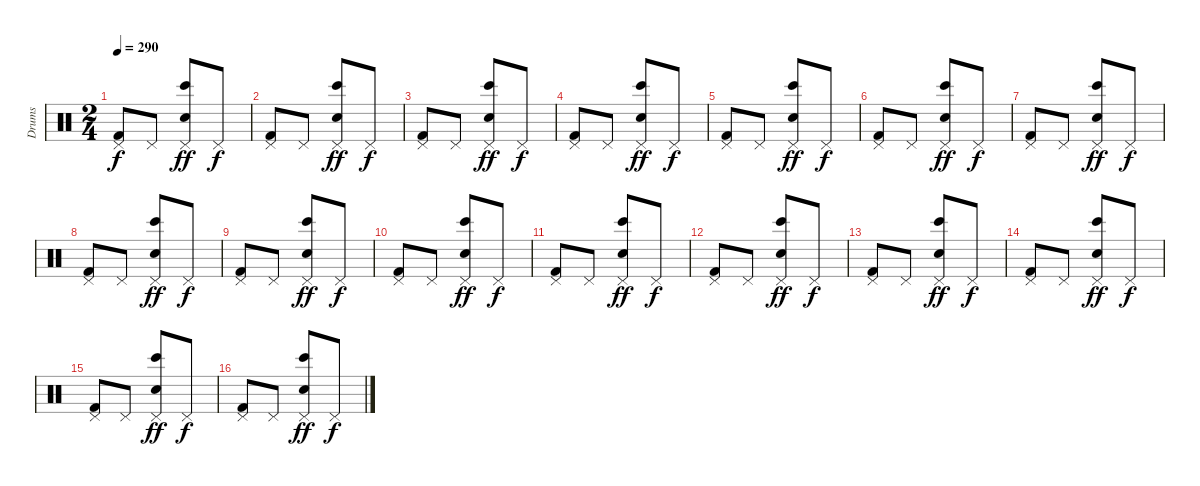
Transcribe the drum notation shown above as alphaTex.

\track ("Drums" "Drums") {instrument percussion}
\staff {score}
\articulation defaults
\ts (2 4)
\tempo 290
\clef neutral
\ks c
("Pedal Hi-Hat (hit)" "Kick (hit) 2").8{dy f} "Pedal Hi-Hat (hit)".8 ("Pedal Hi-Hat (hit)" "Bongo High (hit)" "Electric Snare (hit)").8{dy ff} "Pedal Hi-Hat (hit)".8{dy f} |
("Pedal Hi-Hat (hit)" "Kick (hit) 2").8 "Pedal Hi-Hat (hit)".8 ("Pedal Hi-Hat (hit)" "Bongo High (hit)" "Electric Snare (hit)").8{dy ff} "Pedal Hi-Hat (hit)".8{dy f} |
("Pedal Hi-Hat (hit)" "Kick (hit) 2").8 "Pedal Hi-Hat (hit)".8 ("Pedal Hi-Hat (hit)" "Bongo High (hit)" "Electric Snare (hit)").8{dy ff} "Pedal Hi-Hat (hit)".8{dy f} |
("Pedal Hi-Hat (hit)" "Kick (hit) 2").8 "Pedal Hi-Hat (hit)".8 ("Pedal Hi-Hat (hit)" "Bongo High (hit)" "Electric Snare (hit)").8{dy ff} "Pedal Hi-Hat (hit)".8{dy f} |
("Pedal Hi-Hat (hit)" "Kick (hit) 2").8 "Pedal Hi-Hat (hit)".8 ("Pedal Hi-Hat (hit)" "Bongo High (hit)" "Electric Snare (hit)").8{dy ff} "Pedal Hi-Hat (hit)".8{dy f} |
("Pedal Hi-Hat (hit)" "Kick (hit) 2").8 "Pedal Hi-Hat (hit)".8 ("Pedal Hi-Hat (hit)" "Bongo High (hit)" "Electric Snare (hit)").8{dy ff} "Pedal Hi-Hat (hit)".8{dy f} |
("Pedal Hi-Hat (hit)" "Kick (hit) 2").8 "Pedal Hi-Hat (hit)".8 ("Pedal Hi-Hat (hit)" "Bongo High (hit)" "Electric Snare (hit)").8{dy ff} "Pedal Hi-Hat (hit)".8{dy f} |
("Pedal Hi-Hat (hit)" "Kick (hit) 2").8 "Pedal Hi-Hat (hit)".8 ("Pedal Hi-Hat (hit)" "Bongo High (hit)" "Electric Snare (hit)").8{dy ff} "Pedal Hi-Hat (hit)".8{dy f} |
("Pedal Hi-Hat (hit)" "Kick (hit) 2").8 "Pedal Hi-Hat (hit)".8 ("Pedal Hi-Hat (hit)" "Bongo High (hit)" "Electric Snare (hit)").8{dy ff} "Pedal Hi-Hat (hit)".8{dy f} |
("Pedal Hi-Hat (hit)" "Kick (hit) 2").8 "Pedal Hi-Hat (hit)".8 ("Pedal Hi-Hat (hit)" "Bongo High (hit)" "Electric Snare (hit)").8{dy ff} "Pedal Hi-Hat (hit)".8{dy f} |
("Pedal Hi-Hat (hit)" "Kick (hit) 2").8 "Pedal Hi-Hat (hit)".8 ("Pedal Hi-Hat (hit)" "Bongo High (hit)" "Electric Snare (hit)").8{dy ff} "Pedal Hi-Hat (hit)".8{dy f} |
("Pedal Hi-Hat (hit)" "Kick (hit) 2").8 "Pedal Hi-Hat (hit)".8 ("Pedal Hi-Hat (hit)" "Bongo High (hit)" "Electric Snare (hit)").8{dy ff} "Pedal Hi-Hat (hit)".8{dy f} |
("Pedal Hi-Hat (hit)" "Kick (hit) 2").8 "Pedal Hi-Hat (hit)".8 ("Pedal Hi-Hat (hit)" "Bongo High (hit)" "Electric Snare (hit)").8{dy ff} "Pedal Hi-Hat (hit)".8{dy f} |
("Pedal Hi-Hat (hit)" "Kick (hit) 2").8 "Pedal Hi-Hat (hit)".8 ("Pedal Hi-Hat (hit)" "Bongo High (hit)" "Electric Snare (hit)").8{dy ff} "Pedal Hi-Hat (hit)".8{dy f} |
("Pedal Hi-Hat (hit)" "Kick (hit) 2").8 "Pedal Hi-Hat (hit)".8 ("Pedal Hi-Hat (hit)" "Bongo High (hit)" "Electric Snare (hit)").8{dy ff} "Pedal Hi-Hat (hit)".8{dy f} |
("Pedal Hi-Hat (hit)" "Kick (hit) 2").8 "Pedal Hi-Hat (hit)".8 ("Pedal Hi-Hat (hit)" "Bongo High (hit)" "Electric Snare (hit)").8{dy ff} "Pedal Hi-Hat (hit)".8{dy f}
